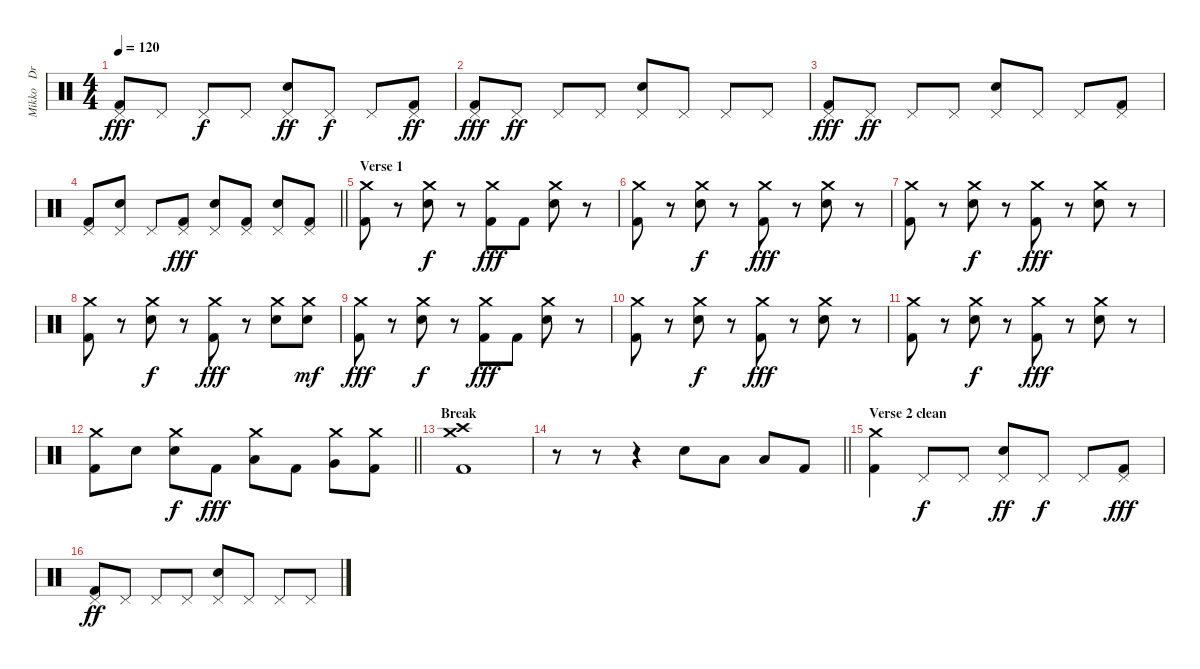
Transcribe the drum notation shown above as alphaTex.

\track ("Mikko   Drums" "Mikko   Dr") {instrument percussion}
\staff {score}
\articulation defaults
\ts (4 4)
\tempo 120
\clef neutral
\ks c
("Pedal Hi-Hat (hit)" "Kick (hit) 2").8{dy fff} "Pedal Hi-Hat (hit)".8 "Pedal Hi-Hat (hit)".8{dy f} "Pedal Hi-Hat (hit)".8 ("Pedal Hi-Hat (hit)" "Snare (hit) 2").8{dy ff} "Pedal Hi-Hat (hit)".8{dy f} "Pedal Hi-Hat (hit)".8 ("Pedal Hi-Hat (hit)" "Kick (hit) 2").8{dy ff} |
("Pedal Hi-Hat (hit)" "Kick (hit) 2").8{dy fff} "Pedal Hi-Hat (hit)".8{dy ff} "Pedal Hi-Hat (hit)".8 "Pedal Hi-Hat (hit)".8 ("Pedal Hi-Hat (hit)" "Snare (hit) 2").8 "Pedal Hi-Hat (hit)".8 "Pedal Hi-Hat (hit)".8 "Pedal Hi-Hat (hit)".8 |
("Pedal Hi-Hat (hit)" "Kick (hit) 2").8{dy fff} "Pedal Hi-Hat (hit)".8{dy ff} "Pedal Hi-Hat (hit)".8 "Pedal Hi-Hat (hit)".8 ("Pedal Hi-Hat (hit)" "Snare (hit) 2").8 "Pedal Hi-Hat (hit)".8 "Pedal Hi-Hat (hit)".8 ("Pedal Hi-Hat (hit)" "Kick (hit) 2").8 |
\barLineRight lightlight
("Pedal Hi-Hat (hit)" "Kick (hit) 2").8 ("Pedal Hi-Hat (hit)" "Snare (hit) 2").8 "Pedal Hi-Hat (hit)".8 ("Pedal Hi-Hat (hit)" "Kick (hit) 2").8{dy fff} ("Pedal Hi-Hat (hit)" "Snare (hit) 2").8 ("Pedal Hi-Hat (hit)" "Kick (hit) 2").8 ("Pedal Hi-Hat (hit)" "Snare (hit) 2").8 ("Pedal Hi-Hat (hit)" "Kick (hit) 2").8 |
\section ("" "Verse 1")
("Crash medium (hit)" "Kick (hit) 2").8 r.8 ("Crash medium (hit)" "Snare (hit) 2").8{dy f} r.8 ("Crash medium (hit)" "Kick (hit) 2").8{dy fff} "Kick (hit) 2".8 ("Crash medium (hit)" "Snare (hit) 2").8 r.8 |
("Crash medium (hit)" "Kick (hit) 2").8 r.8 ("Crash medium (hit)" "Snare (hit) 2").8{dy f} r.8 ("Crash medium (hit)" "Kick (hit) 2").8{dy fff} r.8 ("Crash medium (hit)" "Snare (hit) 2").8 r.8 |
("Crash medium (hit)" "Kick (hit) 2").8 r.8 ("Crash medium (hit)" "Snare (hit) 2").8{dy f} r.8 ("Crash medium (hit)" "Kick (hit) 2").8{dy fff} r.8 ("Crash medium (hit)" "Snare (hit) 2").8 r.8 |
("Crash medium (hit)" "Kick (hit) 2").8 r.8 ("Crash medium (hit)" "Snare (hit) 2").8{dy f} r.8 ("Crash medium (hit)" "Kick (hit) 2").8{dy fff} r.8 ("Crash medium (hit)" "Snare (hit) 2").8 ("Crash medium (hit)" "Snare (hit) 2").8{dy mf} |
("Crash medium (hit)" "Kick (hit) 2").8{dy fff} r.8 ("Crash medium (hit)" "Snare (hit) 2").8{dy f} r.8 ("Crash medium (hit)" "Kick (hit) 2").8{dy fff} "Kick (hit) 2".8 ("Crash medium (hit)" "Snare (hit) 2").8 r.8 |
("Crash medium (hit)" "Kick (hit) 2").8 r.8 ("Crash medium (hit)" "Snare (hit) 2").8{dy f} r.8 ("Crash medium (hit)" "Kick (hit) 2").8{dy fff} r.8 ("Crash medium (hit)" "Snare (hit) 2").8 r.8 |
("Crash medium (hit)" "Kick (hit) 2").8 r.8 ("Crash medium (hit)" "Snare (hit) 2").8{dy f} r.8 ("Crash medium (hit)" "Kick (hit) 2").8{dy fff} r.8 ("Crash medium (hit)" "Snare (hit) 2").8 r.8 |
\barLineRight lightlight
("Crash medium (hit)" "Kick (hit) 2").8 "Snare (hit) 2".8 ("Crash medium (hit)" "Snare (hit) 2").8{dy f} "Kick (hit) 2".8{dy fff} ("Crash medium (hit)" "Low Tom (hit)").8 "Kick (hit) 2".8 ("Crash medium (hit)" "Very Low Tom (hit)").8 ("Crash medium (hit)" "Kick (hit) 2").8 |
\section ("" "Break")
("Crash medium (hit)" "Crash high (hit)" "Kick (hit) 2").1 |
\barLineRight lightlight
r.8 r.8 r.4 "Snare (hit) 2".8 "Low Tom (hit)".8 "Low Tom (hit)".8 "Kick (hit) 2".8 |
\section ("" "Verse 2 clean")
("Crash medium (hit)" "Kick (hit) 2").4 "Pedal Hi-Hat (hit)".8{dy f} "Pedal Hi-Hat (hit)".8 ("Pedal Hi-Hat (hit)" "Snare (hit) 2").8{dy ff} "Pedal Hi-Hat (hit)".8{dy f} "Pedal Hi-Hat (hit)".8 ("Pedal Hi-Hat (hit)" "Kick (hit) 2").8{dy fff} |
("Pedal Hi-Hat (hit)" "Kick (hit) 2").8{dy ff} "Pedal Hi-Hat (hit)".8 "Pedal Hi-Hat (hit)".8 "Pedal Hi-Hat (hit)".8 ("Pedal Hi-Hat (hit)" "Snare (hit) 2").8 "Pedal Hi-Hat (hit)".8 "Pedal Hi-Hat (hit)".8 "Pedal Hi-Hat (hit)".8
